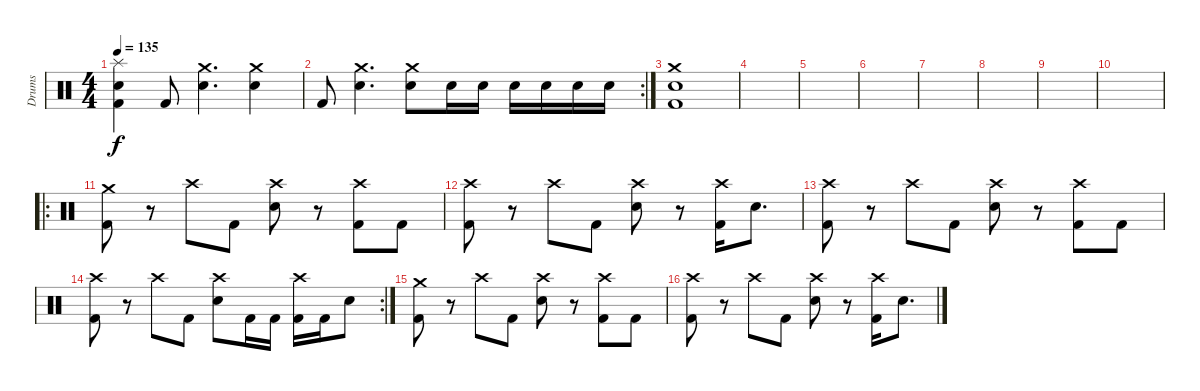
\track ("Drums" "Drums") {instrument percussion}
\staff {score}
\articulation defaults
\ts (4 4)
\tempo 135
\clef neutral
\ks c
("Splash (hit)" "Electric Snare (hit)" "Kick (hit) 2").4{dy f} "Kick (hit) 2".8 ("Crash medium (hit)" "Electric Snare (hit)").4{d} ("Crash medium (hit)" "Electric Snare (hit)").4 |
\rc 2 "Kick (hit) 2".8
("Crash medium (hit)" "Electric Snare (hit)").4{d} ("Crash medium (hit)" "Electric Snare (hit)").8 "Electric Snare (hit)".16 "Electric Snare (hit)".16 "Electric Snare (hit)".16 "Electric Snare (hit)".16 "Electric Snare (hit)".16 "Electric Snare (hit)".16 |
("Crash medium (hit)" "Electric Snare (hit)" "Kick (hit) 2").1 |
|
|
|
|
|
|
|
\ro
("Crash medium (hit)" "Kick (hit) 2").8 r.8 "Crash high (hit)".8 "Kick (hit) 2".8 ("Crash high (hit)" "Electric Snare (hit)").8 r.8 ("Crash high (hit)" "Kick (hit) 2").8 "Kick (hit) 2".8 |
("Crash high (hit)" "Kick (hit) 2").8 r.8 "Crash high (hit)".8 "Kick (hit) 2".8 ("Crash high (hit)" "Electric Snare (hit)").8 r.8 ("Crash high (hit)" "Kick (hit) 2").16 "Electric Snare (hit)".8{d} |
("Crash high (hit)" "Kick (hit) 2").8 r.8 "Crash high (hit)".8 "Kick (hit) 2".8 ("Crash high (hit)" "Electric Snare (hit)").8 r.8 ("Crash high (hit)" "Kick (hit) 2").8 "Kick (hit) 2".8 |
\rc 2
("Crash high (hit)" "Kick (hit) 2").8 r.8 "Crash high (hit)".8 "Kick (hit) 2".8 ("Crash high (hit)" "Electric Snare (hit)").8 "Kick (hit) 2".16 "Kick (hit) 2".16 ("Crash high (hit)" "Kick (hit) 2").16 "Kick (hit) 2".16 "Electric Snare (hit)".8 |
("Crash medium (hit)" "Kick (hit) 2").8 r.8 "Crash high (hit)".8 "Kick (hit) 2".8 ("Crash high (hit)" "Electric Snare (hit)").8 r.8 ("Crash high (hit)" "Kick (hit) 2").8 "Kick (hit) 2".8 |
("Crash high (hit)" "Kick (hit) 2").8 r.8 "Crash high (hit)".8 "Kick (hit) 2".8 ("Crash high (hit)" "Electric Snare (hit)").8 r.8 ("Crash high (hit)" "Kick (hit) 2").16 "Electric Snare (hit)".8{d}
